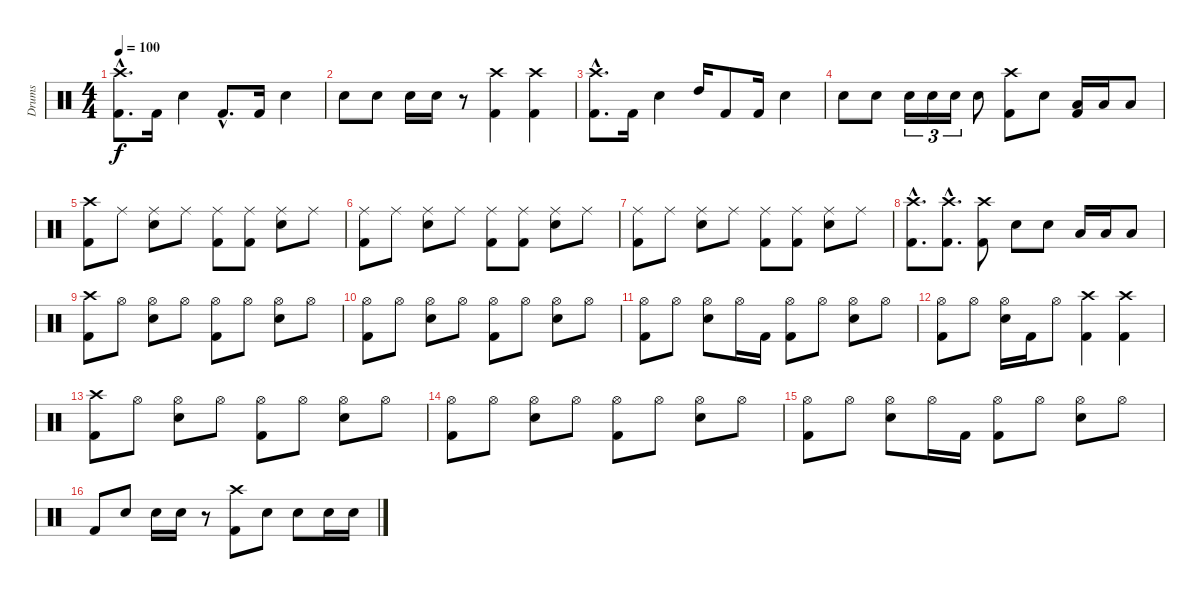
\track ("Drums" "Drums") {instrument percussion}
\staff {score}
\articulation defaults
\ts (4 4)
\tempo 100
\clef neutral
\ks c
("Crash high (hit)"{hac} "Kick (hit) 2"{hac}).8{d dy f} "Kick (hit) 2".16 "Electric Snare (hit)".4 "Kick (hit) 2"{hac}.8{d} "Kick (hit) 2".16 "Electric Snare (hit)".4 |
"Electric Snare (hit)".8 "Electric Snare (hit)".8 "Electric Snare (hit)".16 "Electric Snare (hit)".16 r.8 ("Crash high (hit)" "Kick (hit) 2").4 ("Crash high (hit)" "Kick (hit) 2").4 |
("Crash high (hit)"{hac} "Kick (hit) 2"{hac}).8{d} "Kick (hit) 2".16 "Electric Snare (hit)".4 "High Tom (hit)".16 "Kick (hit) 2".8 "Kick (hit) 2".16 "Electric Snare (hit)".4 |
"Electric Snare (hit)".8 "Electric Snare (hit)".8 "Electric Snare (hit)".16{tu (3 2)} "Electric Snare (hit)".16{tu (3 2)} "Electric Snare (hit)".16{tu (3 2)} "Electric Snare (hit)".8 ("Crash high (hit)" "Kick (hit) 2").8 "Electric Snare (hit)".8 ("Low Tom (hit)" "Kick (hit) 2").16 "Low Tom (hit)".16 "Low Tom (hit)".8 |
("Crash high (hit)" "Kick (hit) 2").8 "Ride (middle)".8 ("Ride (middle)" "Electric Snare (hit)").8 "Ride (middle)".8 ("Ride (middle)" "Kick (hit) 2").8 ("Ride (middle)" "Kick (hit) 2").8 ("Ride (middle)" "Electric Snare (hit)").8 "Ride (middle)".8 |
("Ride (middle)" "Kick (hit) 2").8 "Ride (middle)".8 ("Ride (middle)" "Electric Snare (hit)").8 "Ride (middle)".8 ("Ride (middle)" "Kick (hit) 2").8 ("Ride (middle)" "Kick (hit) 2").8 ("Ride (middle)" "Electric Snare (hit)").8 "Ride (middle)".8 |
("Ride (middle)" "Kick (hit) 2").8 "Ride (middle)".8 ("Ride (middle)" "Electric Snare (hit)").8 "Ride (middle)".8 ("Ride (middle)" "Kick (hit) 2").8 ("Ride (middle)" "Kick (hit) 2").8 ("Ride (middle)" "Electric Snare (hit)").8 "Ride (middle)".8 |
("Crash high (hit)"{hac} "Kick (hit) 2"{hac}).8{d} ("Crash high (hit)"{hac} "Kick (hit) 2"{hac}).8{d} ("Crash high (hit)" "Kick (hit) 2").8 "Electric Snare (hit)".8 "Electric Snare (hit)".8 "Low Tom (hit)".16 "Low Tom (hit)".16 "Low Tom (hit)".8 |
("Crash high (hit)" "Kick (hit) 2").8 "Hi-Hat (open)".8 ("Hi-Hat (open)" "Electric Snare (hit)").8 "Hi-Hat (open)".8 ("Hi-Hat (open)" "Kick (hit) 2").8 "Hi-Hat (open)".8 ("Hi-Hat (open)" "Electric Snare (hit)").8 "Hi-Hat (open)".8 |
("Hi-Hat (open)" "Kick (hit) 2").8 "Hi-Hat (open)".8 ("Hi-Hat (open)" "Electric Snare (hit)").8 "Hi-Hat (open)".8 ("Hi-Hat (open)" "Kick (hit) 2").8 "Hi-Hat (open)".8 ("Hi-Hat (open)" "Electric Snare (hit)").8 "Hi-Hat (open)".8 |
("Hi-Hat (open)" "Kick (hit) 2").8 "Hi-Hat (open)".8 ("Hi-Hat (open)" "Electric Snare (hit)").8 "Hi-Hat (open)".16 "Kick (hit) 2".16 ("Hi-Hat (open)" "Kick (hit) 2").8 "Hi-Hat (open)".8 ("Hi-Hat (open)" "Electric Snare (hit)").8 "Hi-Hat (open)".8 |
("Hi-Hat (open)" "Kick (hit) 2").8 "Hi-Hat (open)".8 ("Hi-Hat (open)" "Electric Snare (hit)").16 "Kick (hit) 2".16 "Hi-Hat (open)".8 ("Crash high (hit)" "Kick (hit) 2").4 ("Crash high (hit)" "Kick (hit) 2").4 |
("Crash high (hit)" "Kick (hit) 2").8 "Hi-Hat (open)".8 ("Hi-Hat (open)" "Electric Snare (hit)").8 "Hi-Hat (open)".8 ("Hi-Hat (open)" "Kick (hit) 2").8 "Hi-Hat (open)".8 ("Hi-Hat (open)" "Electric Snare (hit)").8 "Hi-Hat (open)".8 |
("Hi-Hat (open)" "Kick (hit) 2").8 "Hi-Hat (open)".8 ("Hi-Hat (open)" "Electric Snare (hit)").8 "Hi-Hat (open)".8 ("Hi-Hat (open)" "Kick (hit) 2").8 "Hi-Hat (open)".8 ("Hi-Hat (open)" "Electric Snare (hit)").8 "Hi-Hat (open)".8 |
("Hi-Hat (open)" "Kick (hit) 2").8 "Hi-Hat (open)".8 ("Hi-Hat (open)" "Electric Snare (hit)").8 "Hi-Hat (open)".16 "Kick (hit) 2".16 ("Hi-Hat (open)" "Kick (hit) 2").8 "Hi-Hat (open)".8 ("Hi-Hat (open)" "Electric Snare (hit)").8 "Hi-Hat (open)".8 |
"Kick (hit) 2".8 "Electric Snare (hit)".8 "Electric Snare (hit)".16 "Electric Snare (hit)".16 r.8 ("Crash high (hit)" "Kick (hit) 2").8 "Electric Snare (hit)".8 "Electric Snare (hit)".8 "Electric Snare (hit)".16 "Electric Snare (hit)".16
